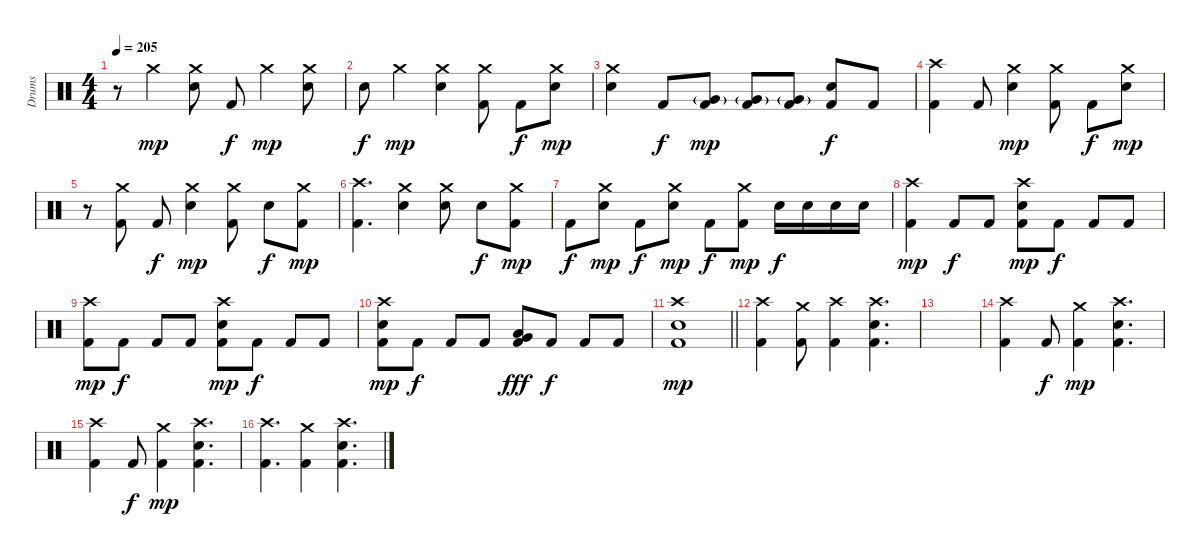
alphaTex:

\track ("Drums" "Drums") {instrument percussion}
\staff {score}
\articulation defaults
\ts (4 4)
\tempo 205
\clef neutral
\ks c
r.8{dy mp} "Crash medium (hit)".4 ("Crash medium (hit)" "Electric Snare (hit)").8 "Kick (hit) 2".8{dy f} "Crash medium (hit)".4{dy mp} ("Crash medium (hit)" "Electric Snare (hit)").8 |
"Electric Snare (hit)".8{dy f} "Crash medium (hit)".4{dy mp} ("Crash medium (hit)" "Electric Snare (hit)").4 ("Crash medium (hit)" "Kick (hit) 2").8 "Kick (hit) 2".8{dy f} ("Crash medium (hit)" "Electric Snare (hit)").8{dy mp} |
("Crash medium (hit)" "Electric Snare (hit)").4 "Kick (hit) 2".8{dy f} ("Very Low Tom (hit)"{g} "Kick (hit) 2").8{dy mp} ("Very Low Tom (hit)"{g} "Kick (hit) 2").8 ("Very Low Tom (hit)"{g} "Kick (hit) 2").8 ("Electric Snare (hit)" "Kick (hit) 2").8{dy f} "Kick (hit) 2".8 |
("Crash high (hit)" "Kick (hit) 2").4 "Kick (hit) 2".8 ("Crash medium (hit)" "Electric Snare (hit)").4{dy mp} ("Crash medium (hit)" "Kick (hit) 2").8 "Kick (hit) 2".8{dy f} ("Crash medium (hit)" "Electric Snare (hit)").8{dy mp} |
r.8 ("Crash medium (hit)" "Kick (hit) 2").8 "Kick (hit) 2".8{dy f} ("Crash medium (hit)" "Electric Snare (hit)").4{dy mp} ("Crash medium (hit)" "Kick (hit) 2").8 "Electric Snare (hit)".8{dy f} ("Crash medium (hit)" "Kick (hit) 2").8{dy mp} |
("Crash high (hit)" "Kick (hit) 2").4{d} ("Crash medium (hit)" "Electric Snare (hit)").4 ("Crash medium (hit)" "Electric Snare (hit)").8 "Electric Snare (hit)".8{dy f} ("Crash medium (hit)" "Kick (hit) 2").8{dy mp} |
"Kick (hit) 2".8{dy f} ("Crash medium (hit)" "Electric Snare (hit)").8{dy mp} "Kick (hit) 2".8{dy f} ("Crash medium (hit)" "Electric Snare (hit)").8{dy mp} "Kick (hit) 2".8{dy f} ("Crash medium (hit)" "Kick (hit) 2").8{dy mp} "Electric Snare (hit)".16{dy f} "Electric Snare (hit)".16 "Electric Snare (hit)".16 "Electric Snare (hit)".16 |
("Crash high (hit)" "Kick (hit) 2").4{dy mp} "Kick (hit) 2".8{dy f} "Kick (hit) 2".8 ("Crash high (hit)" "Electric Snare (hit)" "Kick (hit) 2").8{dy mp} "Kick (hit) 2".8{dy f} "Kick (hit) 2".8 "Kick (hit) 2".8 |
("Crash high (hit)" "Kick (hit) 2").8{dy mp} "Kick (hit) 2".8{dy f} "Kick (hit) 2".8 "Kick (hit) 2".8 ("Crash high (hit)" "Electric Snare (hit)" "Kick (hit) 2").8{dy mp} "Kick (hit) 2".8{dy f} "Kick (hit) 2".8 "Kick (hit) 2".8 |
("Crash high (hit)" "Electric Snare (hit)" "Kick (hit) 2").8{dy mp} "Kick (hit) 2".8{dy f} "Kick (hit) 2".8 "Kick (hit) 2".8 ("Low Tom (hit)" "Very Low Tom (hit)" "Kick (hit) 2").8{bu 120 dy fff} "Kick (hit) 2".8{dy f} "Kick (hit) 2".8 "Kick (hit) 2".8 |
\barLineRight lightlight
("Crash high (hit)" "Electric Snare (hit)" "Kick (hit) 2").1{dy mp} |
("Crash high (hit)" "Kick (hit) 2").4 ("Crash medium (hit)" "Kick (hit) 2").8 ("Crash high (hit)" "Kick (hit) 2").4 ("Crash high (hit)" "Electric Snare (hit)" "Kick (hit) 2").4{d} |
|
("Crash high (hit)" "Kick (hit) 2").4 "Kick (hit) 2".8{dy f} ("Crash medium (hit)" "Kick (hit) 2").4{dy mp} ("Crash high (hit)" "Electric Snare (hit)" "Kick (hit) 2").4{d} |
("Crash high (hit)" "Kick (hit) 2").4 "Kick (hit) 2".8{dy f} ("Crash medium (hit)" "Kick (hit) 2").4{dy mp} ("Crash high (hit)" "Electric Snare (hit)" "Kick (hit) 2").4{d} |
("Crash high (hit)" "Kick (hit) 2").4{d} ("Crash medium (hit)" "Kick (hit) 2").4 ("Crash high (hit)" "Electric Snare (hit)" "Kick (hit) 2").4{d}
